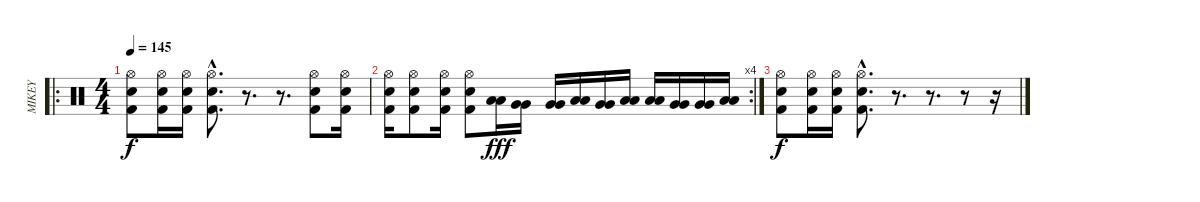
\track ("MIKEY" "MIKEY") {instrument percussion}
\staff {score}
\articulation defaults
\ro
\ts (4 4)
\tempo 145
\clef neutral
\ks c
("Hi-Hat (open)" "Electric Snare (hit)" "Kick (hit) 2").8{dy f} ("Hi-Hat (open)" "Electric Snare (hit)" "Kick (hit) 2").16 ("Hi-Hat (open)" "Electric Snare (hit)" "Kick (hit) 2").16 ("Hi-Hat (open)"{hac} "Electric Snare (hit)"{hac} "Kick (hit) 2"{hac}).8{d} r.8{d} r.8{d} ("Hi-Hat (open)" "Electric Snare (hit)" "Kick (hit) 2").8 ("Hi-Hat (open)" "Electric Snare (hit)" "Kick (hit) 2").16 |
\rc 4
("Hi-Hat (open)" "Electric Snare (hit)" "Kick (hit) 2").16 ("Hi-Hat (open)" "Electric Snare (hit)" "Kick (hit) 2").8 ("Hi-Hat (open)" "Electric Snare (hit)" "Kick (hit) 2").16 ("Hi-Hat (open)" "Electric Snare (hit)" "Kick (hit) 2").8 ("Low Tom (hit)" "Low Tom (hit)").16{dy fff} ("Very Low Tom (hit)" "Very Low Tom (hit)").16 ("Very Low Tom (hit)" "Very Low Tom (hit)").16 ("Low Tom (hit)" "Low Tom (hit)").16 ("Very Low Tom (hit)" "Very Low Tom (hit)").16 ("Low Floor Tom (hit)" "Low Floor Tom (hit)").16 ("Low Floor Tom (hit)" "Low Floor Tom (hit)").16 ("Very Low Tom (hit)" "Very Low Tom (hit)").16 ("Very Low Tom (hit)" "Very Low Tom (hit)").16 ("Low Floor Tom (hit)" "Low Floor Tom (hit)").16 |
("Hi-Hat (open)" "Electric Snare (hit)" "Kick (hit) 2").8{dy f} ("Hi-Hat (open)" "Electric Snare (hit)" "Kick (hit) 2").16 ("Hi-Hat (open)" "Electric Snare (hit)" "Kick (hit) 2").16 ("Hi-Hat (open)"{hac} "Electric Snare (hit)"{hac} "Kick (hit) 2"{hac}).8{d} r.8{d} r.8{d} r.8 r.16
